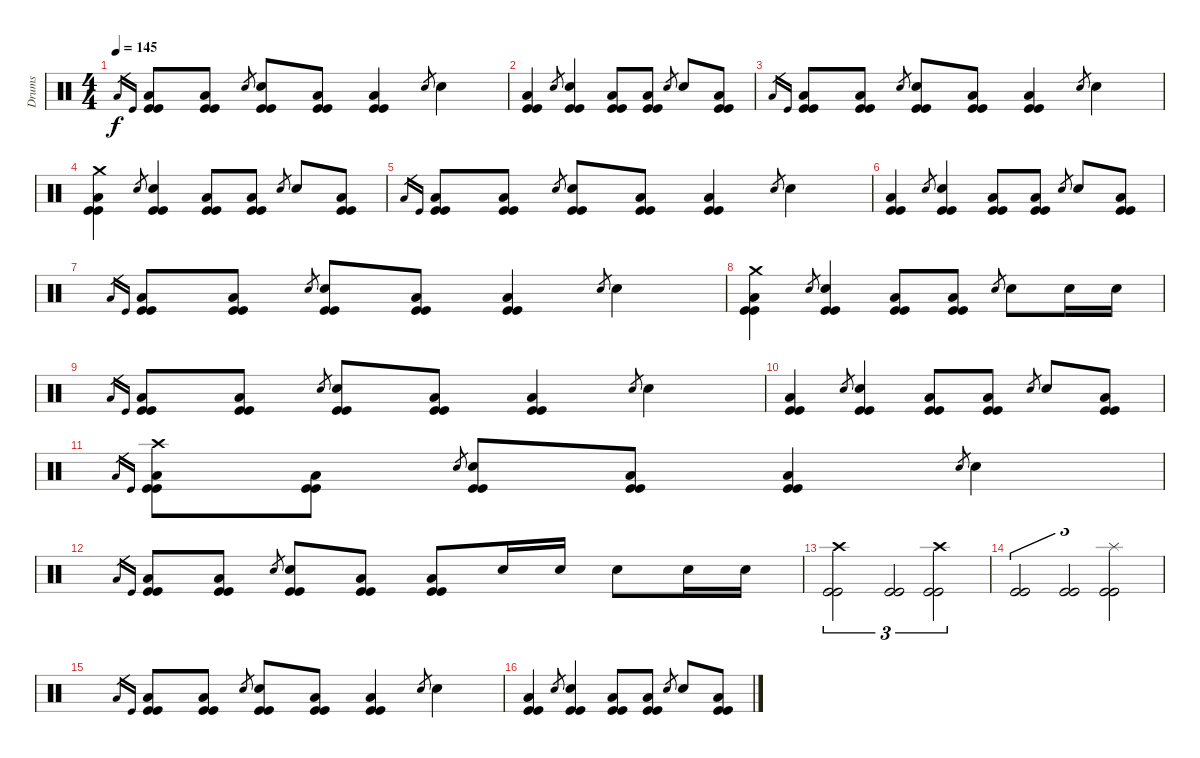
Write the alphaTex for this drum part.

\track ("Drums" "Drums") {instrument percussion}
\staff {score}
\articulation defaults
\ts (4 4)
\tempo 145
\clef neutral
\ks c "Low Floor Tom (hit)".16{gr dy f} "Kick (hit)".16{gr}
("Low Floor Tom (hit)" "Kick (hit)" "Kick (hit)").8 ("Low Floor Tom (hit)" "Kick (hit)" "Kick (hit)").8 "Electric Snare (hit)".8{gr} ("Electric Snare (hit)" "Kick (hit)" "Kick (hit)").8 ("Low Floor Tom (hit)" "Kick (hit)" "Kick (hit)").8 ("Low Floor Tom (hit)" "Kick (hit)" "Kick (hit)").4 "Electric Snare (hit)".8{gr} "Electric Snare (hit)".4 |
("Low Floor Tom (hit)" "Kick (hit)" "Kick (hit)").4 "Electric Snare (hit)".8{gr} ("Electric Snare (hit)" "Kick (hit)" "Kick (hit)").4 ("Low Floor Tom (hit)" "Kick (hit)" "Kick (hit)").8 ("Low Floor Tom (hit)" "Kick (hit)" "Kick (hit)").8 "Electric Snare (hit)".8{gr} "Electric Snare (hit)".8 ("Low Floor Tom (hit)" "Kick (hit)" "Kick (hit)").8 |
"Low Floor Tom (hit)".16{gr} "Kick (hit)".16{gr} ("Low Floor Tom (hit)" "Kick (hit)" "Kick (hit)").8 ("Low Floor Tom (hit)" "Kick (hit)" "Kick (hit)").8 "Electric Snare (hit)".8{gr} ("Electric Snare (hit)" "Kick (hit)" "Kick (hit)").8 ("Low Floor Tom (hit)" "Kick (hit)" "Kick (hit)").8 ("Low Floor Tom (hit)" "Kick (hit)" "Kick (hit)").4 "Electric Snare (hit)".8{gr} "Electric Snare (hit)".4 |
("Crash medium (hit)" "Low Floor Tom (hit)" "Kick (hit)" "Kick (hit)").4 "Electric Snare (hit)".8{gr} ("Electric Snare (hit)" "Kick (hit)" "Kick (hit)").4 ("Low Floor Tom (hit)" "Kick (hit)" "Kick (hit)").8 ("Low Floor Tom (hit)" "Kick (hit)" "Kick (hit)").8 "Electric Snare (hit)".8{gr} "Electric Snare (hit)".8 ("Low Floor Tom (hit)" "Kick (hit)" "Kick (hit)").8 |
"Low Floor Tom (hit)".16{gr} "Kick (hit)".16{gr} ("Low Floor Tom (hit)" "Kick (hit)" "Kick (hit)").8 ("Low Floor Tom (hit)" "Kick (hit)" "Kick (hit)").8 "Electric Snare (hit)".8{gr} ("Electric Snare (hit)" "Kick (hit)" "Kick (hit)").8 ("Low Floor Tom (hit)" "Kick (hit)" "Kick (hit)").8 ("Low Floor Tom (hit)" "Kick (hit)" "Kick (hit)").4 "Electric Snare (hit)".8{gr} "Electric Snare (hit)".4 |
("Low Floor Tom (hit)" "Kick (hit)" "Kick (hit)").4 "Electric Snare (hit)".8{gr} ("Electric Snare (hit)" "Kick (hit)" "Kick (hit)").4 ("Low Floor Tom (hit)" "Kick (hit)" "Kick (hit)").8 ("Low Floor Tom (hit)" "Kick (hit)" "Kick (hit)").8 "Electric Snare (hit)".8{gr} "Electric Snare (hit)".8 ("Low Floor Tom (hit)" "Kick (hit)" "Kick (hit)").8 |
"Low Floor Tom (hit)".16{gr} "Kick (hit)".16{gr} ("Low Floor Tom (hit)" "Kick (hit)" "Kick (hit)").8 ("Low Floor Tom (hit)" "Kick (hit)" "Kick (hit)").8 "Electric Snare (hit)".8{gr} ("Electric Snare (hit)" "Kick (hit)" "Kick (hit)").8 ("Low Floor Tom (hit)" "Kick (hit)" "Kick (hit)").8 ("Low Floor Tom (hit)" "Kick (hit)" "Kick (hit)").4 "Electric Snare (hit)".8{gr} "Electric Snare (hit)".4 |
("Crash medium (hit)" "Low Floor Tom (hit)" "Kick (hit)" "Kick (hit)").4 "Electric Snare (hit)".8{gr} ("Electric Snare (hit)" "Kick (hit)" "Kick (hit)").4 ("Low Floor Tom (hit)" "Kick (hit)" "Kick (hit)").8 ("Low Floor Tom (hit)" "Kick (hit)" "Kick (hit)").8 "Electric Snare (hit)".8{gr} "Electric Snare (hit)".8 "Electric Snare (hit)".16 "Electric Snare (hit)".16 |
"Low Floor Tom (hit)".16{gr} "Kick (hit)".16{gr} ("Low Floor Tom (hit)" "Kick (hit)" "Kick (hit)").8 ("Low Floor Tom (hit)" "Kick (hit)" "Kick (hit)").8 "Electric Snare (hit)".8{gr} ("Electric Snare (hit)" "Kick (hit)" "Kick (hit)").8 ("Low Floor Tom (hit)" "Kick (hit)" "Kick (hit)").8 ("Low Floor Tom (hit)" "Kick (hit)" "Kick (hit)").4 "Electric Snare (hit)".8{gr} "Electric Snare (hit)".4 |
("Low Floor Tom (hit)" "Kick (hit)" "Kick (hit)").4 "Electric Snare (hit)".8{gr} ("Electric Snare (hit)" "Kick (hit)" "Kick (hit)").4 ("Low Floor Tom (hit)" "Kick (hit)" "Kick (hit)").8 ("Low Floor Tom (hit)" "Kick (hit)" "Kick (hit)").8 "Electric Snare (hit)".8{gr} "Electric Snare (hit)".8 ("Low Floor Tom (hit)" "Kick (hit)" "Kick (hit)").8 |
"Low Floor Tom (hit)".16{gr} "Kick (hit)".16{gr} ("Crash high (hit)" "Low Floor Tom (hit)" "Kick (hit)" "Kick (hit)").8 ("Low Floor Tom (hit)" "Kick (hit)" "Kick (hit)").8 "Electric Snare (hit)".8{gr} ("Electric Snare (hit)" "Kick (hit)" "Kick (hit)").8 ("Low Floor Tom (hit)" "Kick (hit)" "Kick (hit)").8 ("Low Floor Tom (hit)" "Kick (hit)" "Kick (hit)").4 "Electric Snare (hit)".8{gr} "Electric Snare (hit)".4 |
"Low Floor Tom (hit)".16{gr} "Kick (hit)".16{gr} ("Low Floor Tom (hit)" "Kick (hit)" "Kick (hit)").8 ("Low Floor Tom (hit)" "Kick (hit)" "Kick (hit)").8 "Electric Snare (hit)".8{gr} ("Electric Snare (hit)" "Kick (hit)" "Kick (hit)").8 ("Low Floor Tom (hit)" "Kick (hit)" "Kick (hit)").8 ("Low Floor Tom (hit)" "Kick (hit)" "Kick (hit)").8 "Electric Snare (hit)".16 "Electric Snare (hit)".16 "Electric Snare (hit)".8 "Electric Snare (hit)".16 "Electric Snare (hit)".16 |
("Crash high (hit)" "Kick (hit)" "Kick (hit)").2{tu (3 2)} ("Kick (hit)" "Kick (hit)").2{tu (3 2)} ("Crash high (hit)" "Kick (hit)" "Kick (hit)").2{tu (3 2)} |
("Kick (hit)" "Kick (hit)").2{tu (3 2)} ("Kick (hit)" "Kick (hit)").2{tu (3 2)} ("Splash (hit)" "Kick (hit)" "Kick (hit)").2{tu (3 2)} |
"Low Floor Tom (hit)".16{gr} "Kick (hit)".16{gr} ("Low Floor Tom (hit)" "Kick (hit)" "Kick (hit)").8 ("Low Floor Tom (hit)" "Kick (hit)" "Kick (hit)").8 "Electric Snare (hit)".8{gr} ("Electric Snare (hit)" "Kick (hit)" "Kick (hit)").8 ("Low Floor Tom (hit)" "Kick (hit)" "Kick (hit)").8 ("Low Floor Tom (hit)" "Kick (hit)" "Kick (hit)").4 "Electric Snare (hit)".8{gr} "Electric Snare (hit)".4 |
("Low Floor Tom (hit)" "Kick (hit)" "Kick (hit)").4 "Electric Snare (hit)".8{gr} ("Electric Snare (hit)" "Kick (hit)" "Kick (hit)").4 ("Low Floor Tom (hit)" "Kick (hit)" "Kick (hit)").8 ("Low Floor Tom (hit)" "Kick (hit)" "Kick (hit)").8 "Electric Snare (hit)".8{gr} "Electric Snare (hit)".8 ("Low Floor Tom (hit)" "Kick (hit)" "Kick (hit)").8
